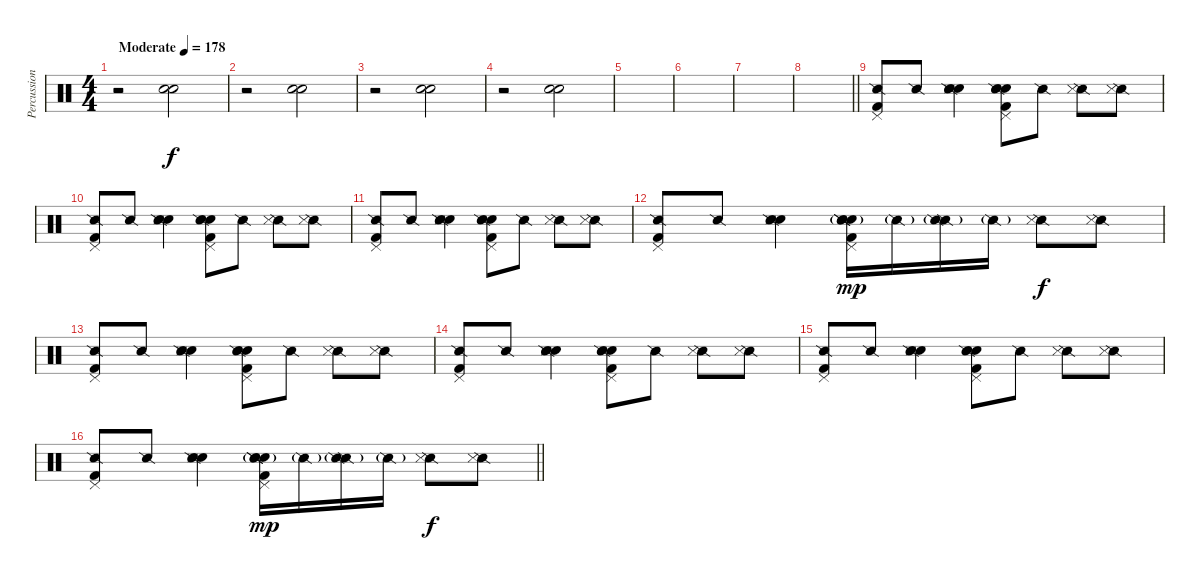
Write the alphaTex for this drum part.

\track ("Percussion" "Percussion") {instrument percussion}
\staff {score}
\articulation defaults
\ts (4 4)
\tempo (178 "Moderate")
\clef neutral
\ks c
r.2{dy f} ("Hand Clap (hit)" "Hand Clap (hit)").2 |
r.2 ("Hand Clap (hit)" "Hand Clap (hit)").2 |
r.2 ("Hand Clap (hit)" "Hand Clap (hit)").2 |
r.2 ("Hand Clap (hit)" "Hand Clap (hit)").2 |
|
|
|
\barLineRight lightlight
|
\section ("" "")
("Pedal Hi-Hat (hit)" "Kick (hit) 2" "Snare (side stick) 2").8 "Snare (side stick) 2".8 ("Hand Clap (hit)" "Hand Clap (hit)" "Snare (side stick) 2" "Metronome (hit)").4 ("Pedal Hi-Hat (hit)" "Hand Clap (hit)" "Hand Clap (hit)" "Kick (hit) 2" "Snare (side stick) 2").8 "Snare (side stick) 2".8 ("Snare (side stick) 2" "Metronome (hit)").8 ("Snare (side stick) 2" "Metronome (hit)").8 |
("Pedal Hi-Hat (hit)" "Kick (hit) 2" "Snare (side stick) 2").8 "Snare (side stick) 2".8 ("Hand Clap (hit)" "Hand Clap (hit)" "Snare (side stick) 2" "Metronome (hit)").4 ("Pedal Hi-Hat (hit)" "Hand Clap (hit)" "Hand Clap (hit)" "Kick (hit) 2" "Snare (side stick) 2").8 "Snare (side stick) 2".8 ("Snare (side stick) 2" "Metronome (hit)").8 ("Snare (side stick) 2" "Metronome (hit)").8 |
("Pedal Hi-Hat (hit)" "Kick (hit) 2" "Snare (side stick) 2").8 "Snare (side stick) 2".8 ("Hand Clap (hit)" "Hand Clap (hit)" "Snare (side stick) 2" "Metronome (hit)").4 ("Pedal Hi-Hat (hit)" "Hand Clap (hit)" "Hand Clap (hit)" "Kick (hit) 2" "Snare (side stick) 2").8 "Snare (side stick) 2".8 ("Snare (side stick) 2" "Metronome (hit)").8 ("Snare (side stick) 2" "Metronome (hit)").8 |
("Pedal Hi-Hat (hit)" "Kick (hit) 2" "Snare (side stick) 2").8 "Snare (side stick) 2".8 ("Hand Clap (hit)" "Hand Clap (hit)" "Snare (side stick) 2" "Metronome (hit)").4 ("Pedal Hi-Hat (hit)" "Hand Clap (hit)" "Hand Clap (hit)" "Kick (hit) 2" "Snare (side stick) 2" "Snare (side stick) 2"{g}).16{dy mp} "Snare (side stick) 2"{g}.16 ("Snare (side stick) 2" "Snare (side stick) 2"{g}).16 "Snare (side stick) 2"{g}.16 ("Snare (side stick) 2" "Metronome (hit)").8{dy f} ("Snare (side stick) 2" "Metronome (hit)").8 |
("Pedal Hi-Hat (hit)" "Kick (hit) 2" "Snare (side stick) 2").8 "Snare (side stick) 2".8 ("Hand Clap (hit)" "Hand Clap (hit)" "Snare (side stick) 2" "Metronome (hit)").4 ("Pedal Hi-Hat (hit)" "Hand Clap (hit)" "Hand Clap (hit)" "Kick (hit) 2" "Snare (side stick) 2").8 "Snare (side stick) 2".8 ("Snare (side stick) 2" "Metronome (hit)").8 ("Snare (side stick) 2" "Metronome (hit)").8 |
("Pedal Hi-Hat (hit)" "Kick (hit) 2" "Snare (side stick) 2").8 "Snare (side stick) 2".8 ("Hand Clap (hit)" "Hand Clap (hit)" "Snare (side stick) 2" "Metronome (hit)").4 ("Pedal Hi-Hat (hit)" "Hand Clap (hit)" "Hand Clap (hit)" "Kick (hit) 2" "Snare (side stick) 2").8 "Snare (side stick) 2".8 ("Snare (side stick) 2" "Metronome (hit)").8 ("Snare (side stick) 2" "Metronome (hit)").8 |
("Pedal Hi-Hat (hit)" "Kick (hit) 2" "Snare (side stick) 2").8 "Snare (side stick) 2".8 ("Hand Clap (hit)" "Hand Clap (hit)" "Snare (side stick) 2" "Metronome (hit)").4 ("Pedal Hi-Hat (hit)" "Hand Clap (hit)" "Hand Clap (hit)" "Kick (hit) 2" "Snare (side stick) 2").8 "Snare (side stick) 2".8 ("Snare (side stick) 2" "Metronome (hit)").8 ("Snare (side stick) 2" "Metronome (hit)").8 |
\barLineRight lightlight
("Pedal Hi-Hat (hit)" "Kick (hit) 2" "Snare (side stick) 2").8 "Snare (side stick) 2".8 ("Hand Clap (hit)" "Hand Clap (hit)" "Snare (side stick) 2" "Metronome (hit)").4 ("Pedal Hi-Hat (hit)" "Hand Clap (hit)" "Hand Clap (hit)" "Kick (hit) 2" "Snare (side stick) 2" "Snare (side stick) 2"{g}).16{dy mp} "Snare (side stick) 2"{g}.16 ("Snare (side stick) 2" "Snare (side stick) 2"{g}).16 "Snare (side stick) 2"{g}.16 ("Snare (side stick) 2" "Metronome (hit)").8{dy f} ("Snare (side stick) 2" "Metronome (hit)").8
